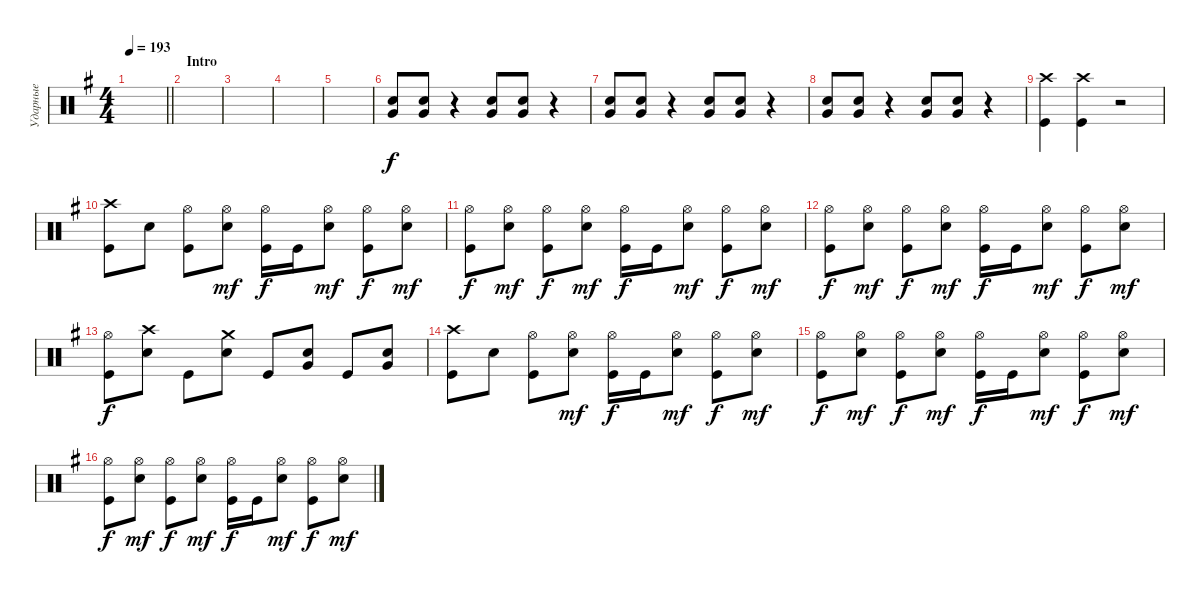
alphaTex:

\track ("Ударные" "Ударные") {instrument percussion}
\staff {score}
\articulation defaults
\ts (4 4)
\tempo 193
\clef neutral
\barLineRight lightlight
\ks eminor
|
\section ("" "Intro")
|
|
|
|
("Snare (hit) 2" "Very Low Tom (hit)").8 ("Very Low Tom (hit)" "Snare (hit) 2").8 r.4 ("Snare (hit) 2" "Very Low Tom (hit)").8 ("Snare (hit) 2" "Very Low Tom (hit)").8 r.4 |
("Snare (hit) 2" "Very Low Tom (hit)").8 ("Very Low Tom (hit)" "Snare (hit) 2").8 r.4 ("Snare (hit) 2" "Very Low Tom (hit)").8 ("Snare (hit) 2" "Very Low Tom (hit)").8 r.4 |
("Snare (hit) 2" "Very Low Tom (hit)").8 ("Very Low Tom (hit)" "Snare (hit) 2").8 r.4 ("Snare (hit) 2" "Very Low Tom (hit)").8 ("Snare (hit) 2" "Very Low Tom (hit)").8 r.4 |
("Kick (hit)" "Crash high (hit)").4 ("Kick (hit)" "Crash high (hit)").4 r.2 |
("Kick (hit)" "Crash high (hit)").8 "Snare (hit) 2".8 ("Kick (hit)" "Hi-Hat (open)").8 ("Snare (hit) 2" "Hi-Hat (open)").8{dy mf} ("Kick (hit)" "Hi-Hat (open)").16{dy f} "Kick (hit)".16 ("Snare (hit) 2" "Hi-Hat (open)").8{dy mf} ("Kick (hit)" "Hi-Hat (open)").8{dy f} ("Snare (hit) 2" "Hi-Hat (open)").8{dy mf} |
("Kick (hit)" "Hi-Hat (open)").8{dy f} ("Snare (hit) 2" "Hi-Hat (open)").8{dy mf} ("Kick (hit)" "Hi-Hat (open)").8{dy f} ("Snare (hit) 2" "Hi-Hat (open)").8{dy mf} ("Kick (hit)" "Hi-Hat (open)").16{dy f} "Kick (hit)".16 ("Snare (hit) 2" "Hi-Hat (open)").8{dy mf} ("Kick (hit)" "Hi-Hat (open)").8{dy f} ("Snare (hit) 2" "Hi-Hat (open)").8{dy mf} |
("Kick (hit)" "Hi-Hat (open)").8{dy f} ("Snare (hit) 2" "Hi-Hat (open)").8{dy mf} ("Kick (hit)" "Hi-Hat (open)").8{dy f} ("Snare (hit) 2" "Hi-Hat (open)").8{dy mf} ("Kick (hit)" "Hi-Hat (open)").16{dy f} "Kick (hit)".16 ("Snare (hit) 2" "Hi-Hat (open)").8{dy mf} ("Kick (hit)" "Hi-Hat (open)").8{dy f} ("Snare (hit) 2" "Hi-Hat (open)").8{dy mf} |
("Kick (hit)" "Hi-Hat (open)").8{dy f} ("Snare (hit) 2" "Crash high (hit)").8 "Kick (hit)".8 ("Snare (hit) 2" "Crash medium (hit)").8 "Kick (hit)".8 ("Snare (hit) 2" "Very Low Tom (hit)").8 "Kick (hit)".8 ("Snare (hit) 2" "Very Low Tom (hit)").8 |
("Kick (hit)" "Crash high (hit)").8 "Snare (hit) 2".8 ("Kick (hit)" "Hi-Hat (open)").8 ("Snare (hit) 2" "Hi-Hat (open)").8{dy mf} ("Kick (hit)" "Hi-Hat (open)").16{dy f} "Kick (hit)".16 ("Snare (hit) 2" "Hi-Hat (open)").8{dy mf} ("Kick (hit)" "Hi-Hat (open)").8{dy f} ("Snare (hit) 2" "Hi-Hat (open)").8{dy mf} |
("Kick (hit)" "Hi-Hat (open)").8{dy f} ("Snare (hit) 2" "Hi-Hat (open)").8{dy mf} ("Kick (hit)" "Hi-Hat (open)").8{dy f} ("Snare (hit) 2" "Hi-Hat (open)").8{dy mf} ("Kick (hit)" "Hi-Hat (open)").16{dy f} "Kick (hit)".16 ("Snare (hit) 2" "Hi-Hat (open)").8{dy mf} ("Kick (hit)" "Hi-Hat (open)").8{dy f} ("Snare (hit) 2" "Hi-Hat (open)").8{dy mf} |
("Kick (hit)" "Hi-Hat (open)").8{dy f} ("Snare (hit) 2" "Hi-Hat (open)").8{dy mf} ("Kick (hit)" "Hi-Hat (open)").8{dy f} ("Snare (hit) 2" "Hi-Hat (open)").8{dy mf} ("Kick (hit)" "Hi-Hat (open)").16{dy f} "Kick (hit)".16 ("Snare (hit) 2" "Hi-Hat (open)").8{dy mf} ("Kick (hit)" "Hi-Hat (open)").8{dy f} ("Snare (hit) 2" "Hi-Hat (open)").8{dy mf}
